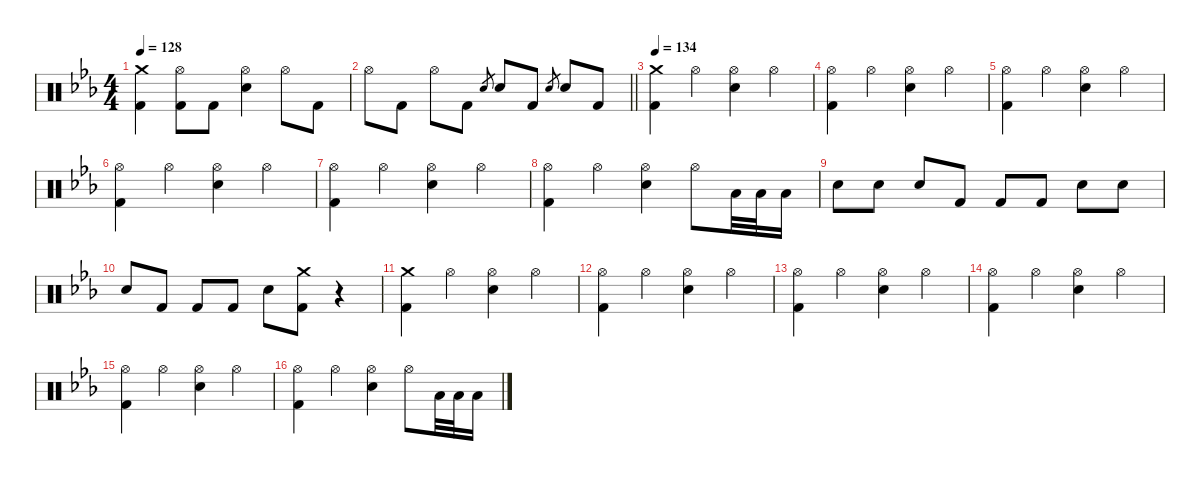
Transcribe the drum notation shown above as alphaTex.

\defaultSystemsLayout 4
\hideDynamics
\bracketExtendMode nobrackets
\singleTrackTrackNamePolicy hidden
\multiTrackTrackNamePolicy hidden
\firstSystemTrackNameMode fullname
\otherSystemsTrackNameOrientation horizontal
\track ("Drums" "drm.") {instrument percussion}
\staff {score}
\articulation defaults
\ts (4 4)
\tempo 128
\clef neutral
\ks cminor
("Crash medium (hit)"{acc forcenatural} "Kick (hit) 2"{acc forcenatural}).4{dy f beam Down} ("Hi-Hat (open)"{acc forcenatural} "Kick (hit) 2"{acc forcenatural}).8{dy mp beam Down} "Kick (hit) 2"{acc forcenatural}.8{dy f beam Down} ("Hi-Hat (open)"{acc forcenatural} "Snare (hit) 2"{acc forcenatural}).4{dy mp beam Down} "Hi-Hat (open)"{acc forcenatural}.8{beam Down} "Kick (hit) 2"{acc forcenatural}.8{dy f beam Down} |
\barLineRight lightlight "Hi-Hat (open)"{acc forcenatural}.8{dy mp beam Down} "Kick (hit) 2"{acc forcenatural}.8{dy f beam Down} "Hi-Hat (open)"{acc forcenatural}.8{dy mp beam Down} "Kick (hit) 2"{acc forcenatural}.8{dy f beam Down} "Electric Snare (hit)"{acc forcenatural}.8{gr dy mf beam Up} "Snare (hit) 2"{acc forcenatural}.8{dy f beam Up} "Kick (hit) 2"{acc forcenatural}.8{beam Up} "Electric Snare (hit)"{acc forcenatural}.8{gr dy mf beam Up} "Snare (hit) 2"{acc forcenatural}.8{dy f beam Up} "Kick (hit) 2"{acc forcenatural}.8{beam Up}
|
\tempo 134
("Crash medium (hit)"{acc forcenatural} "Kick (hit) 2"{acc forcenatural}).4{beam Down} "Hi-Hat (open)"{acc forcenatural}.4{dy mp beam Down} ("Hi-Hat (open)"{acc forcenatural} "Snare (hit) 2"{acc forcenatural}).4{beam Down} "Hi-Hat (open)"{acc forcenatural}.4{beam Down} |
("Hi-Hat (open)"{acc forcenatural} "Kick (hit) 2"{acc forcenatural}).4{beam Down} "Hi-Hat (open)"{acc forcenatural}.4{beam Down} ("Hi-Hat (open)"{acc forcenatural} "Snare (hit) 2"{acc forcenatural}).4{beam Down} "Hi-Hat (open)"{acc forcenatural}.4{beam Down} |
("Hi-Hat (open)"{acc forcenatural} "Kick (hit) 2"{acc forcenatural}).4{beam Down} "Hi-Hat (open)"{acc forcenatural}.4{beam Down} ("Hi-Hat (open)"{acc forcenatural} "Snare (hit) 2"{acc forcenatural}).4{beam Down} "Hi-Hat (open)"{acc forcenatural}.4{beam Down} |
("Hi-Hat (open)"{acc forcenatural} "Kick (hit) 2"{acc forcenatural}).4{beam Down} "Hi-Hat (open)"{acc forcenatural}.4{beam Down} ("Hi-Hat (open)"{acc forcenatural} "Snare (hit) 2"{acc forcenatural}).4{beam Down} "Hi-Hat (open)"{acc forcenatural}.4{beam Down} |
("Hi-Hat (open)"{acc forcenatural} "Kick (hit) 2"{acc forcenatural}).4{beam Down} "Hi-Hat (open)"{acc forcenatural}.4{beam Down} ("Hi-Hat (open)"{acc forcenatural} "Snare (hit) 2"{acc forcenatural}).4{beam Down} "Hi-Hat (open)"{acc forcenatural}.4{beam Down} |
("Hi-Hat (open)"{acc forcenatural} "Kick (hit) 2"{acc forcenatural}).4{beam Down} "Hi-Hat (open)"{acc forcenatural}.4{beam Down} ("Hi-Hat (open)"{acc forcenatural} "Snare (hit) 2"{acc forcenatural}).4{beam Down} "Hi-Hat (open)"{acc forcenatural}.8{beam Down} "Low Tom (hit)"{acc forcenatural}.32{dy f beam Down} "Low Tom (hit)"{acc forcenatural}.32{beam Down} "Low Tom (hit)"{acc forcenatural}.16{beam Down} |
"Snare (hit) 2"{acc forcenatural}.8{beam Down} "Snare (hit) 2"{acc forcenatural}.8{beam Down} "Snare (hit) 2"{acc forcenatural}.8{beam Up} "Kick (hit) 2"{acc forcenatural}.8{beam Up} "Kick (hit) 2"{acc forcenatural}.8{beam Up} "Kick (hit) 2"{acc forcenatural}.8{beam Up} "Snare (hit) 2"{acc forcenatural}.8{beam Down} "Snare (hit) 2"{acc forcenatural}.8{beam Down} |
"Snare (hit) 2"{acc forcenatural}.8{beam Up} "Kick (hit) 2"{acc forcenatural}.8{beam Up} "Kick (hit) 2"{acc forcenatural}.8{beam Up} "Kick (hit) 2"{acc forcenatural}.8{beam Up} "Snare (hit) 2"{acc forcenatural}.8{beam Down} ("Crash medium (hit)"{acc forcenatural} "Kick (hit) 2"{acc forcenatural}).8{beam Down} r.4{beam Down} |
("Crash medium (hit)"{acc forcenatural} "Kick (hit) 2"{acc forcenatural}).4{beam Down} "Hi-Hat (open)"{acc forcenatural}.4{dy mp beam Down} ("Hi-Hat (open)"{acc forcenatural} "Snare (hit) 2"{acc forcenatural}).4{beam Down} "Hi-Hat (open)"{acc forcenatural}.4{beam Down} |
("Hi-Hat (open)"{acc forcenatural} "Kick (hit) 2"{acc forcenatural}).4{beam Down} "Hi-Hat (open)"{acc forcenatural}.4{beam Down} ("Hi-Hat (open)"{acc forcenatural} "Snare (hit) 2"{acc forcenatural}).4{beam Down} "Hi-Hat (open)"{acc forcenatural}.4{beam Down} |
("Hi-Hat (open)"{acc forcenatural} "Kick (hit) 2"{acc forcenatural}).4{beam Down} "Hi-Hat (open)"{acc forcenatural}.4{beam Down} ("Hi-Hat (open)"{acc forcenatural} "Snare (hit) 2"{acc forcenatural}).4{beam Down} "Hi-Hat (open)"{acc forcenatural}.4{beam Down} |
("Hi-Hat (open)"{acc forcenatural} "Kick (hit) 2"{acc forcenatural}).4{beam Down} "Hi-Hat (open)"{acc forcenatural}.4{beam Down} ("Hi-Hat (open)"{acc forcenatural} "Snare (hit) 2"{acc forcenatural}).4{beam Down} "Hi-Hat (open)"{acc forcenatural}.4{beam Down} |
("Hi-Hat (open)"{acc forcenatural} "Kick (hit) 2"{acc forcenatural}).4{beam Down} "Hi-Hat (open)"{acc forcenatural}.4{beam Down} ("Hi-Hat (open)"{acc forcenatural} "Snare (hit) 2"{acc forcenatural}).4{beam Down} "Hi-Hat (open)"{acc forcenatural}.4{beam Down} |
("Hi-Hat (open)"{acc forcenatural} "Kick (hit) 2"{acc forcenatural}).4{beam Down} "Hi-Hat (open)"{acc forcenatural}.4{beam Down} ("Hi-Hat (open)"{acc forcenatural} "Snare (hit) 2"{acc forcenatural}).4{beam Down} "Hi-Hat (open)"{acc forcenatural}.8{beam Down} "Low Tom (hit)"{acc forcenatural}.32{dy f beam Down} "Low Tom (hit)"{acc forcenatural}.32{beam Down} "Low Tom (hit)"{acc forcenatural}.16{beam Down}
